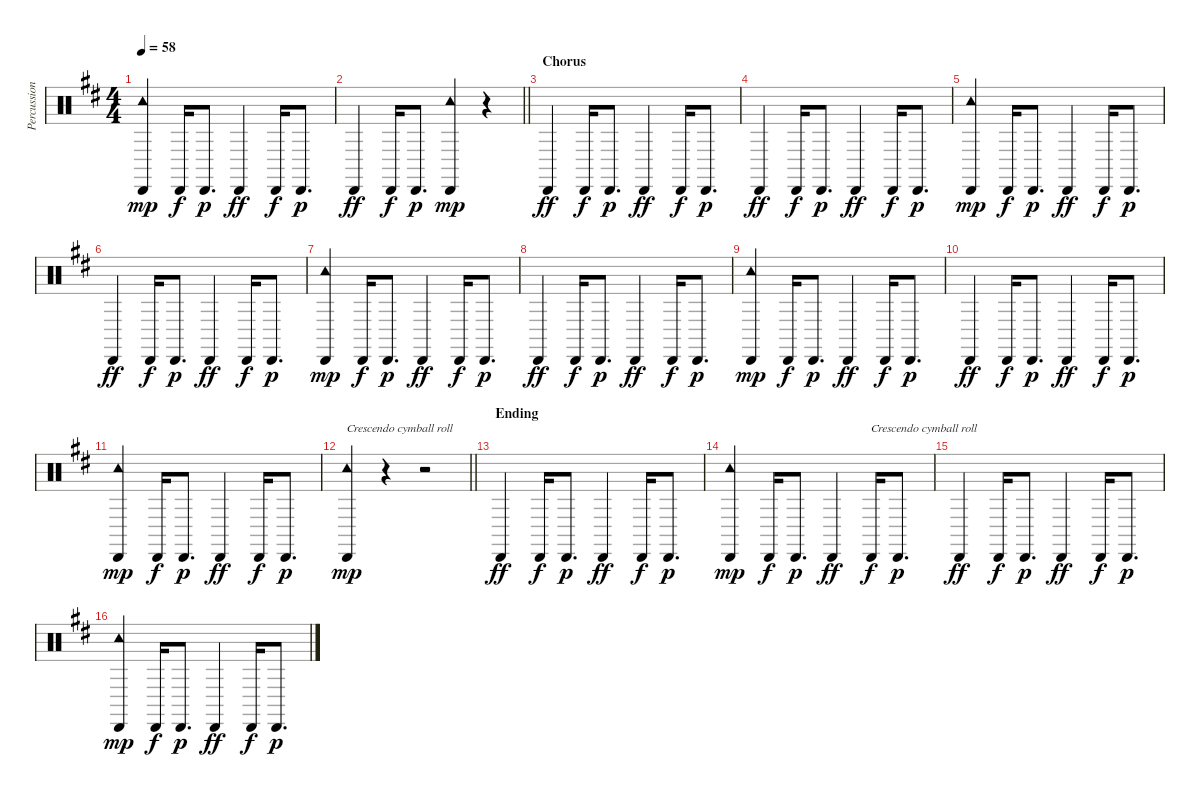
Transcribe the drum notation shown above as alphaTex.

\track ("Percussion" "Percussion") {instrument percussion}
\staff {score}
\articulation defaults
\ts (4 4)
\tempo 58
\clef neutral
\ks bminor
("Cabasa (hit)" "Tambourine (hit)").4{dy mp} "Cabasa (hit)".16{dy f} "Cabasa (hit)".8{d dy p} "Cabasa (hit)".4{dy ff} "Cabasa (hit)".16{dy f} "Cabasa (hit)".8{d dy p} |
\barLineRight lightlight "Cabasa (hit)".4{dy ff} "Cabasa (hit)".16{dy f} "Cabasa (hit)".8{d dy p}
("Cabasa (hit)" "Tambourine (hit)").4{dy mp} r.4 |
\section ("" "Chorus")
"Cabasa (hit)".4{dy ff} "Cabasa (hit)".16{dy f} "Cabasa (hit)".8{d dy p} "Cabasa (hit)".4{dy ff} "Cabasa (hit)".16{dy f} "Cabasa (hit)".8{d dy p} |
"Cabasa (hit)".4{dy ff} "Cabasa (hit)".16{dy f} "Cabasa (hit)".8{d dy p} "Cabasa (hit)".4{dy ff} "Cabasa (hit)".16{dy f} "Cabasa (hit)".8{d dy p} |
("Cabasa (hit)" "Tambourine (hit)").4{dy mp} "Cabasa (hit)".16{dy f} "Cabasa (hit)".8{d dy p} "Cabasa (hit)".4{dy ff} "Cabasa (hit)".16{dy f} "Cabasa (hit)".8{d dy p} |
"Cabasa (hit)".4{dy ff} "Cabasa (hit)".16{dy f} "Cabasa (hit)".8{d dy p} "Cabasa (hit)".4{dy ff} "Cabasa (hit)".16{dy f} "Cabasa (hit)".8{d dy p} |
("Cabasa (hit)" "Tambourine (hit)").4{dy mp} "Cabasa (hit)".16{dy f} "Cabasa (hit)".8{d dy p} "Cabasa (hit)".4{dy ff} "Cabasa (hit)".16{dy f} "Cabasa (hit)".8{d dy p} |
"Cabasa (hit)".4{dy ff} "Cabasa (hit)".16{dy f} "Cabasa (hit)".8{d dy p} "Cabasa (hit)".4{dy ff} "Cabasa (hit)".16{dy f} "Cabasa (hit)".8{d dy p} |
("Cabasa (hit)" "Tambourine (hit)").4{dy mp} "Cabasa (hit)".16{dy f} "Cabasa (hit)".8{d dy p} "Cabasa (hit)".4{dy ff} "Cabasa (hit)".16{dy f} "Cabasa (hit)".8{d dy p} |
"Cabasa (hit)".4{dy ff} "Cabasa (hit)".16{dy f} "Cabasa (hit)".8{d dy p} "Cabasa (hit)".4{dy ff} "Cabasa (hit)".16{dy f} "Cabasa (hit)".8{d dy p} |
("Cabasa (hit)" "Tambourine (hit)").4{dy mp} "Cabasa (hit)".16{dy f} "Cabasa (hit)".8{d dy p} "Cabasa (hit)".4{dy ff} "Cabasa (hit)".16{dy f} "Cabasa (hit)".8{d dy p} |
\barLineRight lightlight
("Cabasa (hit)" "Tambourine (hit)").4{txt "Crescendo cymball roll" dy mp} r.4 r.2 |
\section ("" "Ending")
"Cabasa (hit)".4{dy ff} "Cabasa (hit)".16{dy f} "Cabasa (hit)".8{d dy p} "Cabasa (hit)".4{dy ff} "Cabasa (hit)".16{dy f} "Cabasa (hit)".8{d dy p} |
("Cabasa (hit)" "Tambourine (hit)").4{dy mp} "Cabasa (hit)".16{dy f} "Cabasa (hit)".8{d dy p} "Cabasa (hit)".4{dy ff} "Cabasa (hit)".16{txt "Crescendo cymball roll" dy f} "Cabasa (hit)".8{d dy p} |
"Cabasa (hit)".4{dy ff} "Cabasa (hit)".16{dy f} "Cabasa (hit)".8{d dy p} "Cabasa (hit)".4{dy ff} "Cabasa (hit)".16{dy f} "Cabasa (hit)".8{d dy p} |
("Cabasa (hit)" "Tambourine (hit)").4{dy mp} "Cabasa (hit)".16{dy f} "Cabasa (hit)".8{d dy p} "Cabasa (hit)".4{dy ff} "Cabasa (hit)".16{dy f} "Cabasa (hit)".8{d dy p}
